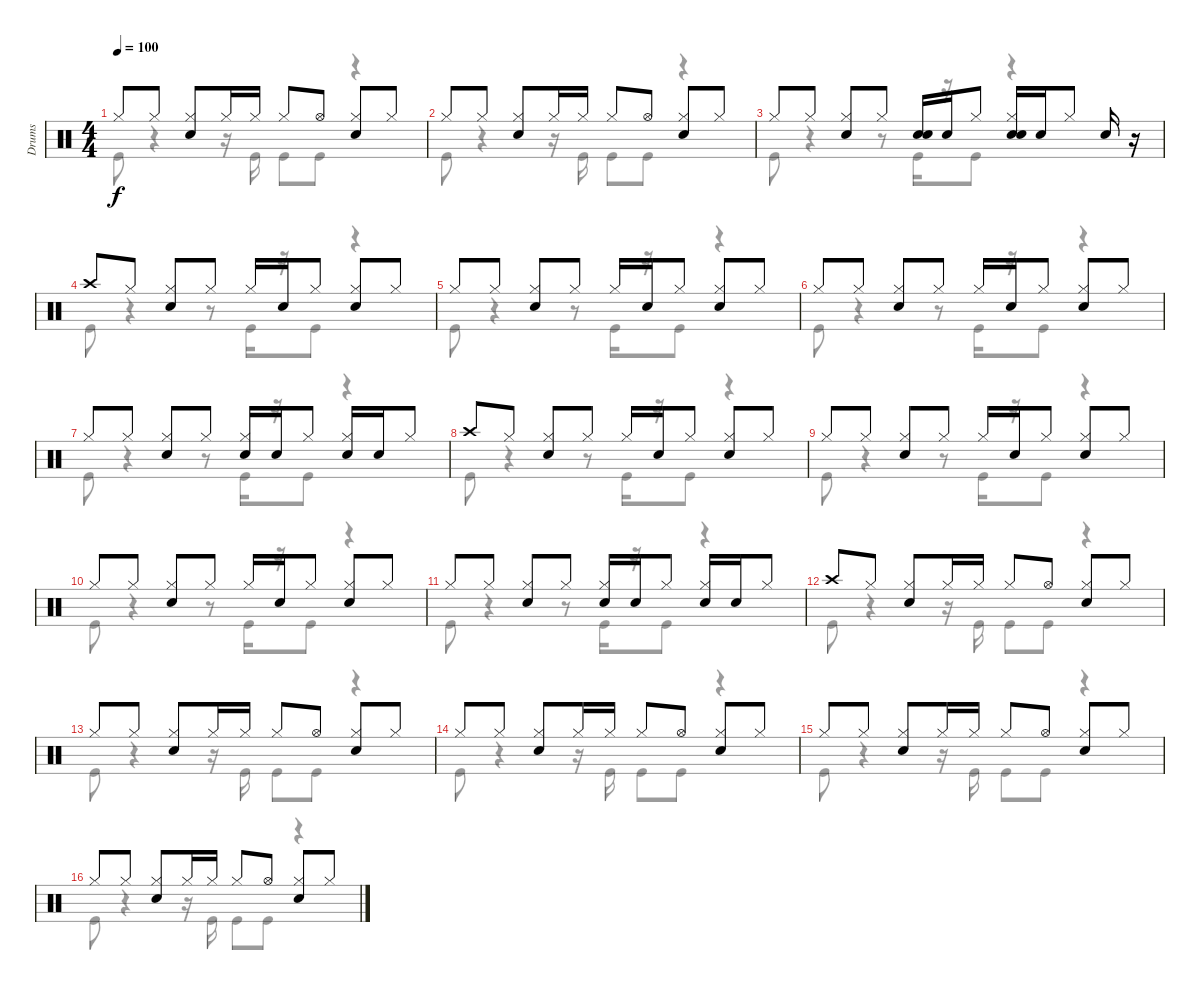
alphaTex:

\track ("Drums" "Drums") {instrument percussion}
\staff {score}
\articulation defaults
\voice
\ts (4 4)
\tempo 100
\clef neutral
\ks c "Hi-Hat (closed)".8{dy f} "Hi-Hat (closed)".8
("Hi-Hat (closed)" "Electric Snare (hit)").8 "Hi-Hat (closed)".16 "Hi-Hat (closed)".16 "Hi-Hat (closed)".8 "Hi-Hat (open)".8 ("Hi-Hat (closed)" "Electric Snare (hit)").8 "Hi-Hat (closed)".8 |
"Hi-Hat (closed)".8 "Hi-Hat (closed)".8 ("Hi-Hat (closed)" "Electric Snare (hit)").8 "Hi-Hat (closed)".16 "Hi-Hat (closed)".16 "Hi-Hat (closed)".8 "Hi-Hat (open)".8 ("Hi-Hat (closed)" "Electric Snare (hit)").8 "Hi-Hat (closed)".8 |
"Hi-Hat (closed)".8 "Hi-Hat (closed)".8 ("Hi-Hat (closed)" "Electric Snare (hit)").8 "Hi-Hat (closed)".8 ("Electric Snare (hit)" "Electric Snare (hit)").16 "Electric Snare (hit)".16 "Hi-Hat (closed)".8 ("Electric Snare (hit)" "Hi-Hat (closed)" "Electric Snare (hit)").16 "Electric Snare (hit)".16 "Hi-Hat (closed)".8 "Electric Snare (hit)".16 r.16 |
"Crash high (hit)".8 "Hi-Hat (closed)".8 ("Hi-Hat (closed)" "Electric Snare (hit)").8 "Hi-Hat (closed)".8 "Hi-Hat (closed)".16 "Electric Snare (hit)".16 "Hi-Hat (closed)".8 ("Hi-Hat (closed)" "Electric Snare (hit)").8 "Hi-Hat (closed)".8 |
"Hi-Hat (closed)".8 "Hi-Hat (closed)".8 ("Hi-Hat (closed)" "Electric Snare (hit)").8 "Hi-Hat (closed)".8 "Hi-Hat (closed)".16 "Electric Snare (hit)".16 "Hi-Hat (closed)".8 ("Hi-Hat (closed)" "Electric Snare (hit)").8 "Hi-Hat (closed)".8 |
"Hi-Hat (closed)".8 "Hi-Hat (closed)".8 ("Hi-Hat (closed)" "Electric Snare (hit)").8 "Hi-Hat (closed)".8 "Hi-Hat (closed)".16 "Electric Snare (hit)".16 "Hi-Hat (closed)".8 ("Hi-Hat (closed)" "Electric Snare (hit)").8 "Hi-Hat (closed)".8 |
"Hi-Hat (closed)".8 "Hi-Hat (closed)".8 ("Hi-Hat (closed)" "Electric Snare (hit)").8 "Hi-Hat (closed)".8 ("Hi-Hat (closed)" "Electric Snare (hit)").16 "Electric Snare (hit)".16 "Hi-Hat (closed)".8 ("Hi-Hat (closed)" "Electric Snare (hit)").16 "Electric Snare (hit)".16 "Hi-Hat (closed)".8 |
"Crash high (hit)".8 "Hi-Hat (closed)".8 ("Hi-Hat (closed)" "Electric Snare (hit)").8 "Hi-Hat (closed)".8 "Hi-Hat (closed)".16 "Electric Snare (hit)".16 "Hi-Hat (closed)".8 ("Hi-Hat (closed)" "Electric Snare (hit)").8 "Hi-Hat (closed)".8 |
"Hi-Hat (closed)".8 "Hi-Hat (closed)".8 ("Hi-Hat (closed)" "Electric Snare (hit)").8 "Hi-Hat (closed)".8 "Hi-Hat (closed)".16 "Electric Snare (hit)".16 "Hi-Hat (closed)".8 ("Hi-Hat (closed)" "Electric Snare (hit)").8 "Hi-Hat (closed)".8 |
"Hi-Hat (closed)".8 "Hi-Hat (closed)".8 ("Hi-Hat (closed)" "Electric Snare (hit)").8 "Hi-Hat (closed)".8 "Hi-Hat (closed)".16 "Electric Snare (hit)".16 "Hi-Hat (closed)".8 ("Hi-Hat (closed)" "Electric Snare (hit)").8 "Hi-Hat (closed)".8 |
"Hi-Hat (closed)".8 "Hi-Hat (closed)".8 ("Hi-Hat (closed)" "Electric Snare (hit)").8 "Hi-Hat (closed)".8 ("Hi-Hat (closed)" "Electric Snare (hit)").16 "Electric Snare (hit)".16 "Hi-Hat (closed)".8 ("Hi-Hat (closed)" "Electric Snare (hit)").16 "Electric Snare (hit)".16 "Hi-Hat (closed)".8 |
"Crash high (hit)".8 "Hi-Hat (closed)".8 ("Hi-Hat (closed)" "Electric Snare (hit)").8 "Hi-Hat (closed)".16 "Hi-Hat (closed)".16 "Hi-Hat (closed)".8 "Hi-Hat (open)".8 ("Hi-Hat (closed)" "Electric Snare (hit)").8 "Hi-Hat (closed)".8 |
"Hi-Hat (closed)".8 "Hi-Hat (closed)".8 ("Hi-Hat (closed)" "Electric Snare (hit)").8 "Hi-Hat (closed)".16 "Hi-Hat (closed)".16 "Hi-Hat (closed)".8 "Hi-Hat (open)".8 ("Hi-Hat (closed)" "Electric Snare (hit)").8 "Hi-Hat (closed)".8 |
"Hi-Hat (closed)".8 "Hi-Hat (closed)".8 ("Hi-Hat (closed)" "Electric Snare (hit)").8 "Hi-Hat (closed)".16 "Hi-Hat (closed)".16 "Hi-Hat (closed)".8 "Hi-Hat (open)".8 ("Hi-Hat (closed)" "Electric Snare (hit)").8 "Hi-Hat (closed)".8 |
"Hi-Hat (closed)".8 "Hi-Hat (closed)".8 ("Hi-Hat (closed)" "Electric Snare (hit)").8 "Hi-Hat (closed)".16 "Hi-Hat (closed)".16 "Hi-Hat (closed)".8 "Hi-Hat (open)".8 ("Hi-Hat (closed)" "Electric Snare (hit)").8 "Hi-Hat (closed)".8 |
"Hi-Hat (closed)".8 "Hi-Hat (closed)".8 ("Hi-Hat (closed)" "Electric Snare (hit)").8 "Hi-Hat (closed)".16 "Hi-Hat (closed)".16 "Hi-Hat (closed)".8 "Hi-Hat (open)".8 ("Hi-Hat (closed)" "Electric Snare (hit)").8 "Hi-Hat (closed)".8
\voice
\clef neutral
\ottava regular
\simile none
\ks c "Kick (hit)".8{dy f}
r.4 r.16 "Kick (hit)".16 "Kick (hit)".8 "Kick (hit)".8 r.4 |
"Kick (hit)".8 r.4 r.16 "Kick (hit)".16 "Kick (hit)".8 "Kick (hit)".8 r.4 |
"Kick (hit)".8 r.4 r.8 "Kick (hit)".16 r.16 "Kick (hit)".8 r.4 |
"Kick (hit)".8 r.4 r.8 "Kick (hit)".16 r.16 "Kick (hit)".8 r.4 |
"Kick (hit)".8 r.4 r.8 "Kick (hit)".16 r.16 "Kick (hit)".8 r.4 |
"Kick (hit)".8 r.4 r.8 "Kick (hit)".16 r.16 "Kick (hit)".8 r.4 |
"Kick (hit)".8 r.4 r.8 "Kick (hit)".16 r.16 "Kick (hit)".8 r.4 |
"Kick (hit)".8 r.4 r.8 "Kick (hit)".16 r.16 "Kick (hit)".8 r.4 |
"Kick (hit)".8 r.4 r.8 "Kick (hit)".16 r.16 "Kick (hit)".8 r.4 |
"Kick (hit)".8 r.4 r.8 "Kick (hit)".16 r.16 "Kick (hit)".8 r.4 |
"Kick (hit)".8 r.4 r.8 "Kick (hit)".16 r.16 "Kick (hit)".8 r.4 |
"Kick (hit)".8 r.4 r.16 "Kick (hit)".16 "Kick (hit)".8 "Kick (hit)".8 r.4 |
"Kick (hit)".8 r.4 r.16 "Kick (hit)".16 "Kick (hit)".8 "Kick (hit)".8 r.4 |
"Kick (hit)".8 r.4 r.16 "Kick (hit)".16 "Kick (hit)".8 "Kick (hit)".8 r.4 |
"Kick (hit)".8 r.4 r.16 "Kick (hit)".16 "Kick (hit)".8 "Kick (hit)".8 r.4 |
"Kick (hit)".8 r.4 r.16 "Kick (hit)".16 "Kick (hit)".8 "Kick (hit)".8 r.4
